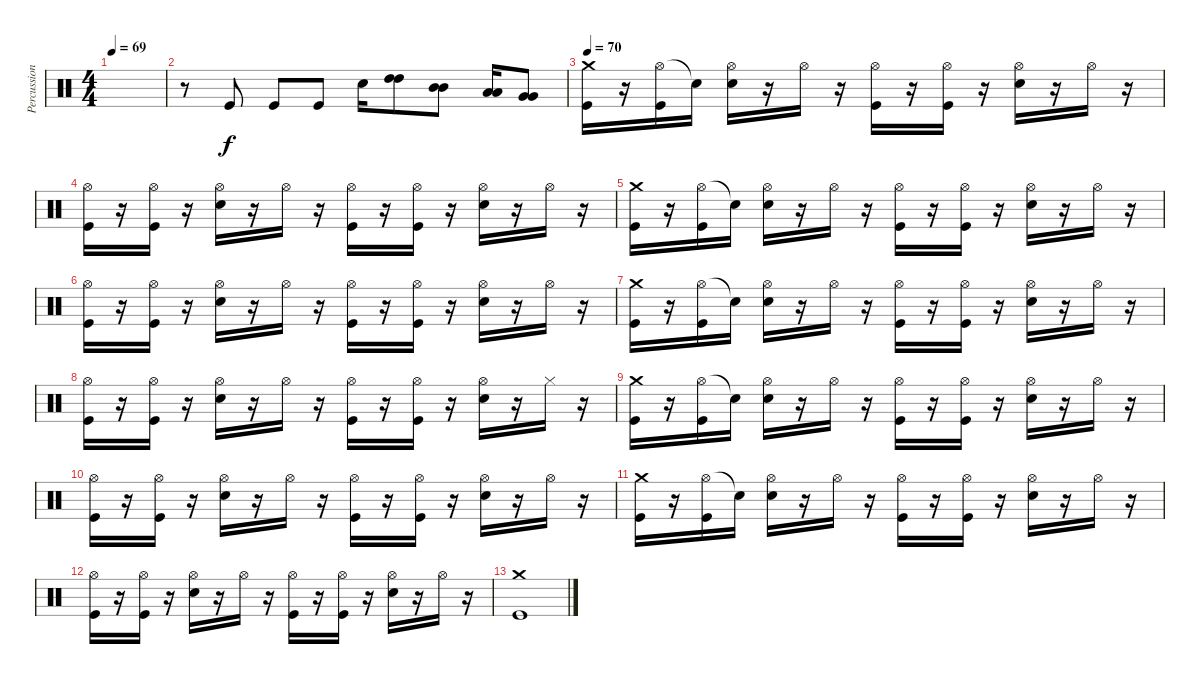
\track ("Percussion" "Percussion") {instrument percussion}
\staff {score}
\articulation defaults
\ts (4 4)
\tempo 69
\clef neutral
\ks c
|
r.8 "Kick (hit)".8 "Kick (hit)".8 "Kick (hit)".8 "Electric Snare (hit)".16 ("High Tom (hit)" "High Tom (hit)").8 ("Mid Tom (hit)" "Mid Tom (hit)").8 ("Low Tom (hit)" "Low Tom (hit)").16 ("Very Low Tom (hit)" "Very Low Tom (hit)").8 |
\tempo 70
("Crash medium (hit)" "Kick (hit)").16 r.16 ("Hi-Hat (open)" "Kick (hit)").16 "Snare (hit)"{t}.16 ("Hi-Hat (open)" "Electric Snare (hit)").16 r.16 "Hi-Hat (open)".16 r.16 ("Hi-Hat (open)" "Kick (hit)").16 r.16 ("Hi-Hat (open)" "Kick (hit)").16 r.16 ("Hi-Hat (open)" "Electric Snare (hit)").16 r.16 "Hi-Hat (open)".16 r.16 |
("Hi-Hat (open)" "Kick (hit)").16 r.16 ("Hi-Hat (open)" "Kick (hit)").16 r.16 ("Hi-Hat (open)" "Electric Snare (hit)").16 r.16 "Hi-Hat (open)".16 r.16 ("Hi-Hat (open)" "Kick (hit)").16 r.16 ("Hi-Hat (open)" "Kick (hit)").16 r.16 ("Hi-Hat (open)" "Electric Snare (hit)").16 r.16 "Hi-Hat (open)".16 r.16 |
("Crash medium (hit)" "Kick (hit)").16 r.16 ("Hi-Hat (open)" "Kick (hit)").16 "Snare (hit)"{t}.16 ("Hi-Hat (open)" "Electric Snare (hit)").16 r.16 "Hi-Hat (open)".16 r.16 ("Hi-Hat (open)" "Kick (hit)").16 r.16 ("Hi-Hat (open)" "Kick (hit)").16 r.16 ("Hi-Hat (open)" "Electric Snare (hit)").16 r.16 "Hi-Hat (open)".16 r.16 |
("Hi-Hat (open)" "Kick (hit)").16 r.16 ("Hi-Hat (open)" "Kick (hit)").16 r.16 ("Hi-Hat (open)" "Electric Snare (hit)").16 r.16 "Hi-Hat (open)".16 r.16 ("Hi-Hat (open)" "Kick (hit)").16 r.16 ("Hi-Hat (open)" "Kick (hit)").16 r.16 ("Hi-Hat (open)" "Electric Snare (hit)").16 r.16 "Hi-Hat (open)".16 r.16 |
("Crash medium (hit)" "Kick (hit)").16 r.16 ("Hi-Hat (open)" "Kick (hit)").16 "Snare (hit)"{t}.16 ("Hi-Hat (open)" "Electric Snare (hit)").16 r.16 "Hi-Hat (open)".16 r.16 ("Hi-Hat (open)" "Kick (hit)").16 r.16 ("Hi-Hat (open)" "Kick (hit)").16 r.16 ("Hi-Hat (open)" "Electric Snare (hit)").16 r.16 "Hi-Hat (open)".16 r.16 |
("Hi-Hat (open)" "Kick (hit)").16 r.16 ("Hi-Hat (open)" "Kick (hit)").16 r.16 ("Hi-Hat (open)" "Electric Snare (hit)").16 r.16 "Hi-Hat (open)".16 r.16 ("Hi-Hat (open)" "Kick (hit)").16 r.16 ("Hi-Hat (open)" "Kick (hit)").16 r.16 ("Hi-Hat (open)" "Electric Snare (hit)").16 r.16 "Hi-Hat (closed)".16 r.16 |
("Crash medium (hit)" "Kick (hit)").16 r.16 ("Hi-Hat (open)" "Kick (hit)").16 "Snare (hit)"{t}.16 ("Hi-Hat (open)" "Electric Snare (hit)").16 r.16 "Hi-Hat (open)".16 r.16 ("Hi-Hat (open)" "Kick (hit)").16 r.16 ("Hi-Hat (open)" "Kick (hit)").16 r.16 ("Hi-Hat (open)" "Electric Snare (hit)").16 r.16 "Hi-Hat (open)".16 r.16 |
("Hi-Hat (open)" "Kick (hit)").16 r.16 ("Hi-Hat (open)" "Kick (hit)").16 r.16 ("Hi-Hat (open)" "Electric Snare (hit)").16 r.16 "Hi-Hat (open)".16 r.16 ("Hi-Hat (open)" "Kick (hit)").16 r.16 ("Hi-Hat (open)" "Kick (hit)").16 r.16 ("Hi-Hat (open)" "Electric Snare (hit)").16 r.16 "Hi-Hat (open)".16 r.16 |
("Crash medium (hit)" "Kick (hit)").16 r.16 ("Hi-Hat (open)" "Kick (hit)").16 "Snare (hit)"{t}.16 ("Hi-Hat (open)" "Electric Snare (hit)").16 r.16 "Hi-Hat (open)".16 r.16 ("Hi-Hat (open)" "Kick (hit)").16 r.16 ("Hi-Hat (open)" "Kick (hit)").16 r.16 ("Hi-Hat (open)" "Electric Snare (hit)").16 r.16 "Hi-Hat (open)".16 r.16 |
("Hi-Hat (open)" "Kick (hit)").16 r.16 ("Hi-Hat (open)" "Kick (hit)").16 r.16 ("Hi-Hat (open)" "Electric Snare (hit)").16 r.16 "Hi-Hat (open)".16 r.16 ("Hi-Hat (open)" "Kick (hit)").16 r.16 ("Hi-Hat (open)" "Kick (hit)").16 r.16 ("Hi-Hat (open)" "Electric Snare (hit)").16 r.16 "Hi-Hat (open)".16 r.16 |
("Crash medium (hit)" "Kick (hit)").1
